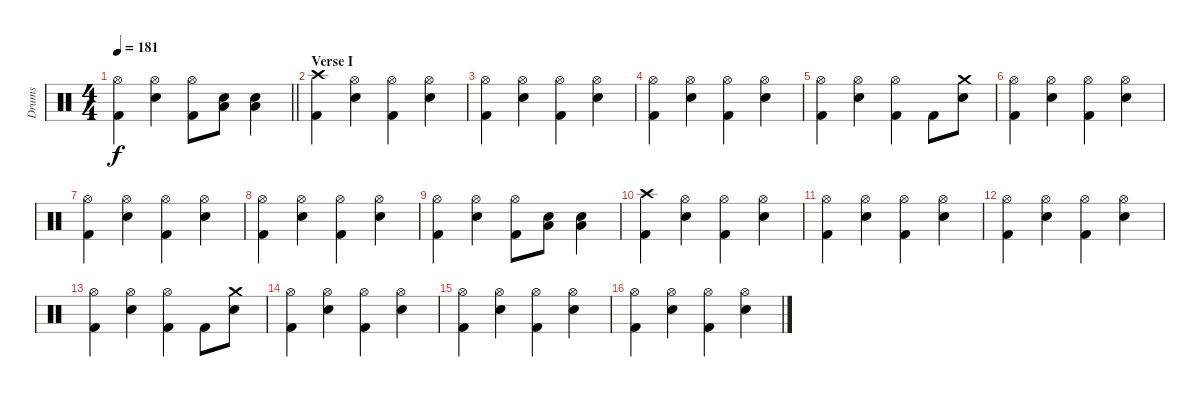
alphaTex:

\track ("Drums" "Drums") {instrument percussion}
\staff {score}
\articulation defaults
\ts (4 4)
\tempo 181
\clef neutral
\barLineRight lightlight
\ks c
("Hi-Hat (open)" "Kick (hit) 2").4{dy f} ("Hi-Hat (open)" "Snare (hit) 2").4 ("Hi-Hat (open)" "Kick (hit) 2").8 ("Snare (hit) 2" "Low Tom (hit)").8 ("Snare (hit) 2" "Low Tom (hit)").4 |
\section ("" "Verse I")
("Crash high (hit)" "Kick (hit) 2").4 ("Hi-Hat (open)" "Snare (hit) 2").4 ("Hi-Hat (open)" "Kick (hit) 2").4 ("Hi-Hat (open)" "Snare (hit) 2").4 |
("Hi-Hat (open)" "Kick (hit) 2").4 ("Hi-Hat (open)" "Snare (hit) 2").4 ("Hi-Hat (open)" "Kick (hit) 2").4 ("Hi-Hat (open)" "Snare (hit) 2").4 |
("Hi-Hat (open)" "Kick (hit) 2").4 ("Hi-Hat (open)" "Snare (hit) 2").4 ("Hi-Hat (open)" "Kick (hit) 2").4 ("Hi-Hat (open)" "Snare (hit) 2").4 |
("Hi-Hat (open)" "Kick (hit) 2").4 ("Hi-Hat (open)" "Snare (hit) 2").4 ("Hi-Hat (open)" "Kick (hit) 2").4 "Kick (hit) 2".8 ("Crash medium (hit)" "Snare (hit) 2").8 |
("Hi-Hat (open)" "Kick (hit) 2").4 ("Hi-Hat (open)" "Snare (hit) 2").4 ("Hi-Hat (open)" "Kick (hit) 2").4 ("Hi-Hat (open)" "Snare (hit) 2").4 |
("Hi-Hat (open)" "Kick (hit) 2").4 ("Hi-Hat (open)" "Snare (hit) 2").4 ("Hi-Hat (open)" "Kick (hit) 2").4 ("Hi-Hat (open)" "Snare (hit) 2").4 |
("Hi-Hat (open)" "Kick (hit) 2").4 ("Hi-Hat (open)" "Snare (hit) 2").4 ("Hi-Hat (open)" "Kick (hit) 2").4 ("Hi-Hat (open)" "Snare (hit) 2").4 |
("Hi-Hat (open)" "Kick (hit) 2").4 ("Hi-Hat (open)" "Snare (hit) 2").4 ("Hi-Hat (open)" "Kick (hit) 2").8 ("Snare (hit) 2" "Low Tom (hit)").8 ("Snare (hit) 2" "Low Tom (hit)").4 |
("Crash high (hit)" "Kick (hit) 2").4 ("Hi-Hat (open)" "Snare (hit) 2").4 ("Hi-Hat (open)" "Kick (hit) 2").4 ("Hi-Hat (open)" "Snare (hit) 2").4 |
("Hi-Hat (open)" "Kick (hit) 2").4 ("Hi-Hat (open)" "Snare (hit) 2").4 ("Hi-Hat (open)" "Kick (hit) 2").4 ("Hi-Hat (open)" "Snare (hit) 2").4 |
("Hi-Hat (open)" "Kick (hit) 2").4 ("Hi-Hat (open)" "Snare (hit) 2").4 ("Hi-Hat (open)" "Kick (hit) 2").4 ("Hi-Hat (open)" "Snare (hit) 2").4 |
("Hi-Hat (open)" "Kick (hit) 2").4 ("Hi-Hat (open)" "Snare (hit) 2").4 ("Hi-Hat (open)" "Kick (hit) 2").4 "Kick (hit) 2".8 ("Crash medium (hit)" "Snare (hit) 2").8 |
("Hi-Hat (open)" "Kick (hit) 2").4 ("Hi-Hat (open)" "Snare (hit) 2").4 ("Hi-Hat (open)" "Kick (hit) 2").4 ("Hi-Hat (open)" "Snare (hit) 2").4 |
("Hi-Hat (open)" "Kick (hit) 2").4 ("Hi-Hat (open)" "Snare (hit) 2").4 ("Hi-Hat (open)" "Kick (hit) 2").4 ("Hi-Hat (open)" "Snare (hit) 2").4 |
("Hi-Hat (open)" "Kick (hit) 2").4 ("Hi-Hat (open)" "Snare (hit) 2").4 ("Hi-Hat (open)" "Kick (hit) 2").4 ("Hi-Hat (open)" "Snare (hit) 2").4
